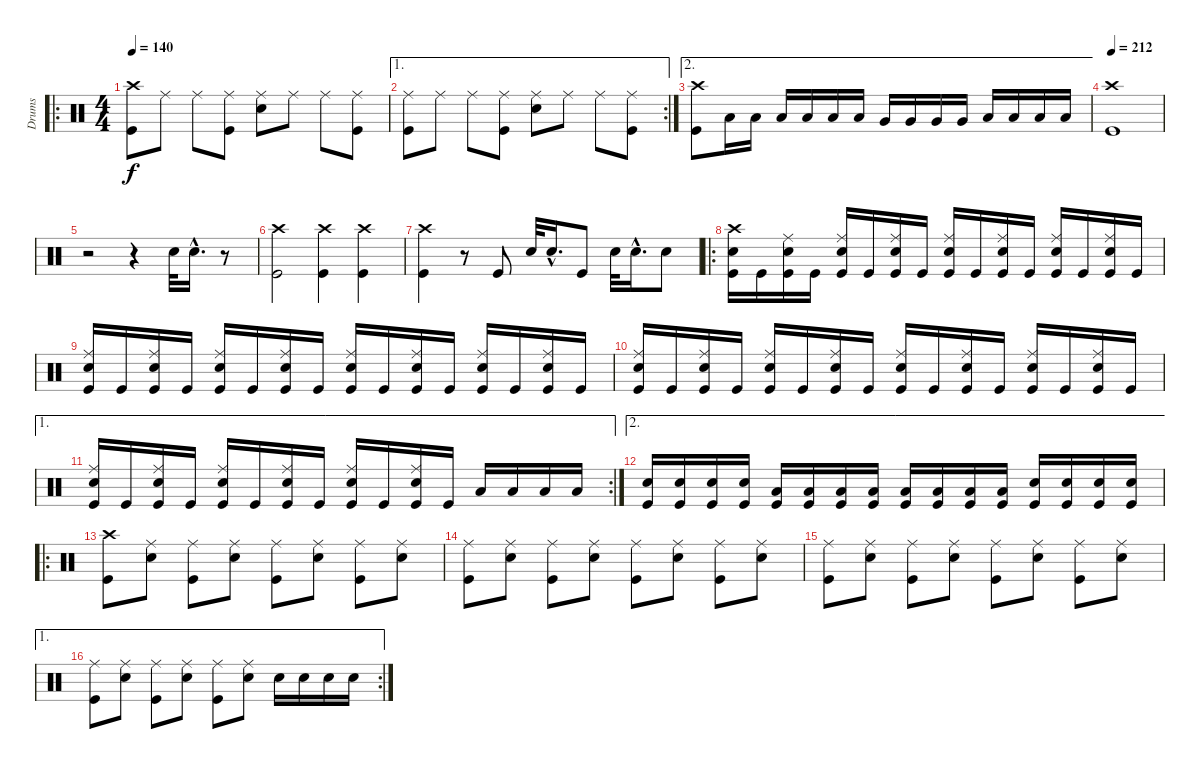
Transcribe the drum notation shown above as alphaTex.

\track ("Drums" "Drums") {instrument percussion}
\staff {score}
\articulation defaults
\ro
\ts (4 4)
\tempo 140
\clef neutral
\ks c
("Crash high (hit)" "Kick (hit)").8{dy f} "Ride (middle)".8 "Ride (middle)".8 ("Ride (middle)" "Kick (hit)").8 ("Ride (middle)" "Electric Snare (hit)").8 "Ride (middle)".8 "Ride (middle)".8 ("Ride (middle)" "Kick (hit)").8 |
\ae 1
\rc 2
("Ride (middle)" "Kick (hit)").8 "Ride (middle)".8 "Ride (middle)".8 ("Ride (middle)" "Kick (hit)").8 ("Ride (middle)" "Electric Snare (hit)").8 "Ride (middle)".8 "Ride (middle)".8 ("Ride (middle)" "Kick (hit)").8 |
\ae 2
("Crash high (hit)" "Kick (hit)").8 "Low Tom (hit)".16 "Low Tom (hit)".16 "Low Tom (hit)".16 "Low Tom (hit)".16 "Low Tom (hit)".16 "Low Tom (hit)".16 "Very Low Tom (hit)".16 "Very Low Tom (hit)".16 "Very Low Tom (hit)".16 "Very Low Tom (hit)".16 "Low Floor Tom (hit)".16 "Low Floor Tom (hit)".16 "Low Floor Tom (hit)".16 "Low Floor Tom (hit)".16 |
\tempo 212
("Crash high (hit)" "Kick (hit)").1 |
r.2 r.4 "Electric Snare (hit)".32 "Electric Snare (hit)"{hac}.16{d} r.8 |
("Crash high (hit)" "Kick (hit)").2 ("Crash high (hit)" "Kick (hit)").4 ("Crash high (hit)" "Kick (hit)").4 |
("Crash high (hit)" "Kick (hit)").4 r.8 "Kick (hit)".8 "Electric Snare (hit)".32 "Electric Snare (hit)"{hac}.16{d} "Kick (hit)".8 "Electric Snare (hit)".32 "Electric Snare (hit)"{hac}.16{d} "Electric Snare (hit)".8 |
\ro
("Crash high (hit)" "Electric Snare (hit)" "Kick (hit)").16 "Kick (hit)".16 ("Ride (middle)" "Electric Snare (hit)" "Kick (hit)").16 "Kick (hit)".16 ("Ride (middle)" "Electric Snare (hit)" "Kick (hit)").16 "Kick (hit)".16 ("Ride (middle)" "Electric Snare (hit)" "Kick (hit)").16 "Kick (hit)".16 ("Ride (middle)" "Electric Snare (hit)" "Kick (hit)").16 "Kick (hit)".16 ("Ride (middle)" "Electric Snare (hit)" "Kick (hit)").16 "Kick (hit)".16 ("Ride (middle)" "Electric Snare (hit)" "Kick (hit)").16 "Kick (hit)".16 ("Ride (middle)" "Electric Snare (hit)" "Kick (hit)").16 "Kick (hit)".16 |
("Ride (middle)" "Electric Snare (hit)" "Kick (hit)").16 "Kick (hit)".16 ("Ride (middle)" "Electric Snare (hit)" "Kick (hit)").16 "Kick (hit)".16 ("Ride (middle)" "Electric Snare (hit)" "Kick (hit)").16 "Kick (hit)".16 ("Ride (middle)" "Electric Snare (hit)" "Kick (hit)").16 "Kick (hit)".16 ("Ride (middle)" "Electric Snare (hit)" "Kick (hit)").16 "Kick (hit)".16 ("Ride (middle)" "Electric Snare (hit)" "Kick (hit)").16 "Kick (hit)".16 ("Ride (middle)" "Electric Snare (hit)" "Kick (hit)").16 "Kick (hit)".16 ("Ride (middle)" "Electric Snare (hit)" "Kick (hit)").16 "Kick (hit)".16 |
("Ride (middle)" "Electric Snare (hit)" "Kick (hit)").16 "Kick (hit)".16 ("Ride (middle)" "Electric Snare (hit)" "Kick (hit)").16 "Kick (hit)".16 ("Ride (middle)" "Electric Snare (hit)" "Kick (hit)").16 "Kick (hit)".16 ("Ride (middle)" "Electric Snare (hit)" "Kick (hit)").16 "Kick (hit)".16 ("Ride (middle)" "Electric Snare (hit)" "Kick (hit)").16 "Kick (hit)".16 ("Ride (middle)" "Electric Snare (hit)" "Kick (hit)").16 "Kick (hit)".16 ("Ride (middle)" "Electric Snare (hit)" "Kick (hit)").16 "Kick (hit)".16 ("Ride (middle)" "Electric Snare (hit)" "Kick (hit)").16 "Kick (hit)".16 |
\ae 1
\rc 2
("Ride (middle)" "Electric Snare (hit)" "Kick (hit)").16 "Kick (hit)".16 ("Ride (middle)" "Electric Snare (hit)" "Kick (hit)").16 "Kick (hit)".16 ("Ride (middle)" "Electric Snare (hit)" "Kick (hit)").16 "Kick (hit)".16 ("Ride (middle)" "Electric Snare (hit)" "Kick (hit)").16 "Kick (hit)".16 ("Ride (middle)" "Electric Snare (hit)" "Kick (hit)").16 "Kick (hit)".16 ("Ride (middle)" "Electric Snare (hit)" "Kick (hit)").16 "Kick (hit)".16 "Low Tom (hit)".16 "Low Tom (hit)".16 "Low Tom (hit)".16 "Low Tom (hit)".16 |
\ae 2
("Electric Snare (hit)" "Kick (hit)").16 ("Electric Snare (hit)" "Kick (hit)").16 ("Electric Snare (hit)" "Kick (hit)").16 ("Electric Snare (hit)" "Kick (hit)").16 ("Low Tom (hit)" "Kick (hit)").16 ("Low Tom (hit)" "Kick (hit)").16 ("Low Tom (hit)" "Kick (hit)").16 ("Low Tom (hit)" "Kick (hit)").16 ("Low Tom (hit)" "Kick (hit)").16 ("Low Tom (hit)" "Kick (hit)").16 ("Low Tom (hit)" "Kick (hit)").16 ("Low Tom (hit)" "Kick (hit)").16 ("Electric Snare (hit)" "Kick (hit)").16 ("Electric Snare (hit)" "Kick (hit)").16 ("Electric Snare (hit)" "Kick (hit)").16 ("Electric Snare (hit)" "Kick (hit)").16 |
\ro
("Crash high (hit)" "Kick (hit)").8 ("Ride (middle)" "Electric Snare (hit)").8 ("Ride (middle)" "Kick (hit)").8 ("Ride (middle)" "Electric Snare (hit)").8 ("Ride (middle)" "Kick (hit)").8 ("Ride (middle)" "Electric Snare (hit)").8 ("Ride (middle)" "Kick (hit)").8 ("Ride (middle)" "Electric Snare (hit)").8 |
("Ride (middle)" "Kick (hit)").8 ("Ride (middle)" "Electric Snare (hit)").8 ("Ride (middle)" "Kick (hit)").8 ("Ride (middle)" "Electric Snare (hit)").8 ("Ride (middle)" "Kick (hit)").8 ("Ride (middle)" "Electric Snare (hit)").8 ("Ride (middle)" "Kick (hit)").8 ("Ride (middle)" "Electric Snare (hit)").8 |
("Ride (middle)" "Kick (hit)").8 ("Ride (middle)" "Electric Snare (hit)").8 ("Ride (middle)" "Kick (hit)").8 ("Ride (middle)" "Electric Snare (hit)").8 ("Ride (middle)" "Kick (hit)").8 ("Ride (middle)" "Electric Snare (hit)").8 ("Ride (middle)" "Kick (hit)").8 ("Ride (middle)" "Electric Snare (hit)").8 |
\ae 1
\rc 2
("Ride (middle)" "Kick (hit)").8 ("Ride (middle)" "Electric Snare (hit)").8 ("Ride (middle)" "Kick (hit)").8 ("Ride (middle)" "Electric Snare (hit)").8 ("Ride (middle)" "Kick (hit)").8 ("Ride (middle)" "Electric Snare (hit)").8 "Electric Snare (hit)".16 "Electric Snare (hit)".16 "Electric Snare (hit)".16 "Electric Snare (hit)".16
